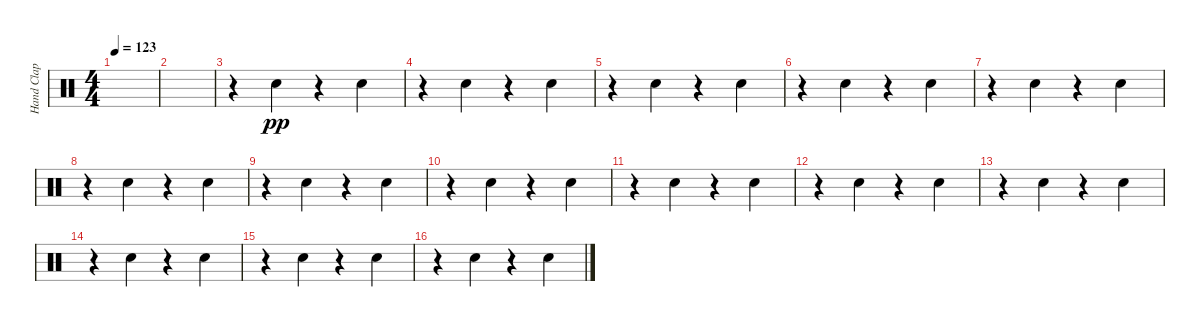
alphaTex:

\track ("Hand Clap" "Hand Clap") {instrument percussion}
\staff {score}
\articulation defaults
\ts (4 4)
\tempo 123
\clef neutral
\ks c
|
|
r.4 "Hand Clap (hit)".4{dy pp} r.4 "Hand Clap (hit)".4 |
r.4 "Hand Clap (hit)".4 r.4 "Hand Clap (hit)".4 |
r.4 "Hand Clap (hit)".4 r.4 "Hand Clap (hit)".4 |
r.4 "Hand Clap (hit)".4 r.4 "Hand Clap (hit)".4 |
r.4 "Hand Clap (hit)".4 r.4 "Hand Clap (hit)".4 |
r.4 "Hand Clap (hit)".4 r.4 "Hand Clap (hit)".4 |
r.4 "Hand Clap (hit)".4 r.4 "Hand Clap (hit)".4 |
r.4 "Hand Clap (hit)".4 r.4 "Hand Clap (hit)".4 |
r.4 "Hand Clap (hit)".4 r.4 "Hand Clap (hit)".4 |
r.4 "Hand Clap (hit)".4 r.4 "Hand Clap (hit)".4 |
r.4 "Hand Clap (hit)".4 r.4 "Hand Clap (hit)".4 |
r.4 "Hand Clap (hit)".4 r.4 "Hand Clap (hit)".4 |
r.4 "Hand Clap (hit)".4 r.4 "Hand Clap (hit)".4 |
r.4 "Hand Clap (hit)".4 r.4 "Hand Clap (hit)".4
